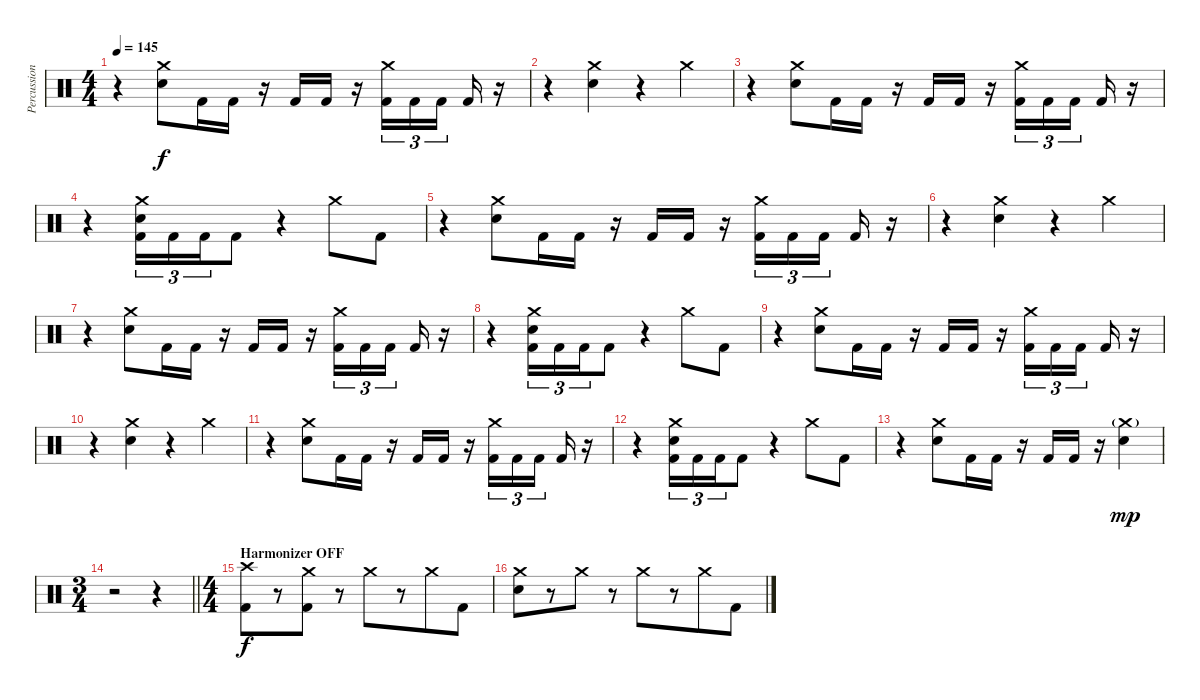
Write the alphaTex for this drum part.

\track ("Percussion" "Percussion") {instrument percussion}
\staff {score}
\articulation defaults
\ts (4 4)
\tempo 145
\clef neutral
\ks c
r.4{dy f} ("Crash medium (hit)" "Electric Snare (hit)").8{beam merge} "Kick (hit) 2".16{beam merge} "Kick (hit) 2".16 r.16{beam merge} "Kick (hit) 2".16 "Kick (hit) 2".16 r.16 ("Crash medium (hit)" "Kick (hit) 2").16{tu (3 2)} "Kick (hit) 2".16{tu (3 2)} "Kick (hit) 2".16{tu (3 2) beam splitsecondary} "Kick (hit) 2".16 r.16 |
r.4{beam merge} ("Crash medium (hit)" "Electric Snare (hit)").4 r.4 "Crash medium (hit)".4 |
r.4 ("Crash medium (hit)" "Electric Snare (hit)").8{beam merge} "Kick (hit) 2".16{beam merge} "Kick (hit) 2".16 r.16{beam merge} "Kick (hit) 2".16 "Kick (hit) 2".16 r.16 ("Crash medium (hit)" "Kick (hit) 2").16{tu (3 2)} "Kick (hit) 2".16{tu (3 2)} "Kick (hit) 2".16{tu (3 2) beam splitsecondary} "Kick (hit) 2".16 r.16 |
r.4 ("Crash medium (hit)" "Electric Snare (hit)" "Kick (hit) 2").16{tu (3 2)} "Kick (hit) 2".16{tu (3 2)} "Kick (hit) 2".16{tu (3 2) beam merge} "Kick (hit) 2".8 r.4 "Crash medium (hit)".8 "Kick (hit) 2".8 |
r.4 ("Crash medium (hit)" "Electric Snare (hit)").8{beam merge} "Kick (hit) 2".16{beam merge} "Kick (hit) 2".16 r.16{beam merge} "Kick (hit) 2".16 "Kick (hit) 2".16 r.16 ("Crash medium (hit)" "Kick (hit) 2").16{tu (3 2)} "Kick (hit) 2".16{tu (3 2)} "Kick (hit) 2".16{tu (3 2) beam splitsecondary} "Kick (hit) 2".16 r.16 |
r.4{beam merge} ("Crash medium (hit)" "Electric Snare (hit)").4 r.4 "Crash medium (hit)".4 |
r.4 ("Crash medium (hit)" "Electric Snare (hit)").8{beam merge} "Kick (hit) 2".16{beam merge} "Kick (hit) 2".16 r.16{beam merge} "Kick (hit) 2".16 "Kick (hit) 2".16 r.16 ("Crash medium (hit)" "Kick (hit) 2").16{tu (3 2)} "Kick (hit) 2".16{tu (3 2)} "Kick (hit) 2".16{tu (3 2) beam splitsecondary} "Kick (hit) 2".16 r.16 |
r.4 ("Crash medium (hit)" "Electric Snare (hit)" "Kick (hit) 2").16{tu (3 2)} "Kick (hit) 2".16{tu (3 2)} "Kick (hit) 2".16{tu (3 2) beam merge} "Kick (hit) 2".8 r.4 "Crash medium (hit)".8 "Kick (hit) 2".8 |
r.4 ("Crash medium (hit)" "Electric Snare (hit)").8{beam merge} "Kick (hit) 2".16{beam merge} "Kick (hit) 2".16 r.16{beam merge} "Kick (hit) 2".16 "Kick (hit) 2".16 r.16 ("Crash medium (hit)" "Kick (hit) 2").16{tu (3 2)} "Kick (hit) 2".16{tu (3 2)} "Kick (hit) 2".16{tu (3 2) beam splitsecondary} "Kick (hit) 2".16 r.16 |
r.4{beam merge} ("Crash medium (hit)" "Electric Snare (hit)").4 r.4 "Crash medium (hit)".4 |
r.4 ("Crash medium (hit)" "Electric Snare (hit)").8{beam merge} "Kick (hit) 2".16{beam merge} "Kick (hit) 2".16 r.16{beam merge} "Kick (hit) 2".16 "Kick (hit) 2".16 r.16 ("Crash medium (hit)" "Kick (hit) 2").16{tu (3 2)} "Kick (hit) 2".16{tu (3 2)} "Kick (hit) 2".16{tu (3 2) beam splitsecondary} "Kick (hit) 2".16 r.16 |
r.4 ("Crash medium (hit)" "Electric Snare (hit)" "Kick (hit) 2").16{tu (3 2)} "Kick (hit) 2".16{tu (3 2)} "Kick (hit) 2".16{tu (3 2) beam merge} "Kick (hit) 2".8 r.4 "Crash medium (hit)".8 "Kick (hit) 2".8 |
r.4 ("Crash medium (hit)" "Electric Snare (hit)").8{beam merge} "Kick (hit) 2".16{beam merge} "Kick (hit) 2".16 r.16{beam merge} "Kick (hit) 2".16 "Kick (hit) 2".16 r.16{beam merge} ("Crash medium (hit)"{g} "Electric Snare (hit)").4{dy mp} |
\ts (3 4)
\barLineRight lightlight
r.2 r.4 |
\ts (4 4)
\section ("" "Harmonizer OFF")
("Crash high (hit)" "Kick (hit) 2").8{dy f beam merge} r.8 ("Crash medium (hit)" "Kick (hit) 2").8 r.8{beam merge} "Crash medium (hit)".8{beam merge} r.8 "Crash medium (hit)".8{beam merge} "Kick (hit) 2".8 |
("Crash medium (hit)" "Electric Snare (hit)").8{beam merge} r.8 "Crash medium (hit)".8 r.8{beam merge} "Crash medium (hit)".8{beam merge} r.8 "Crash medium (hit)".8{beam merge} "Kick (hit) 2".8
